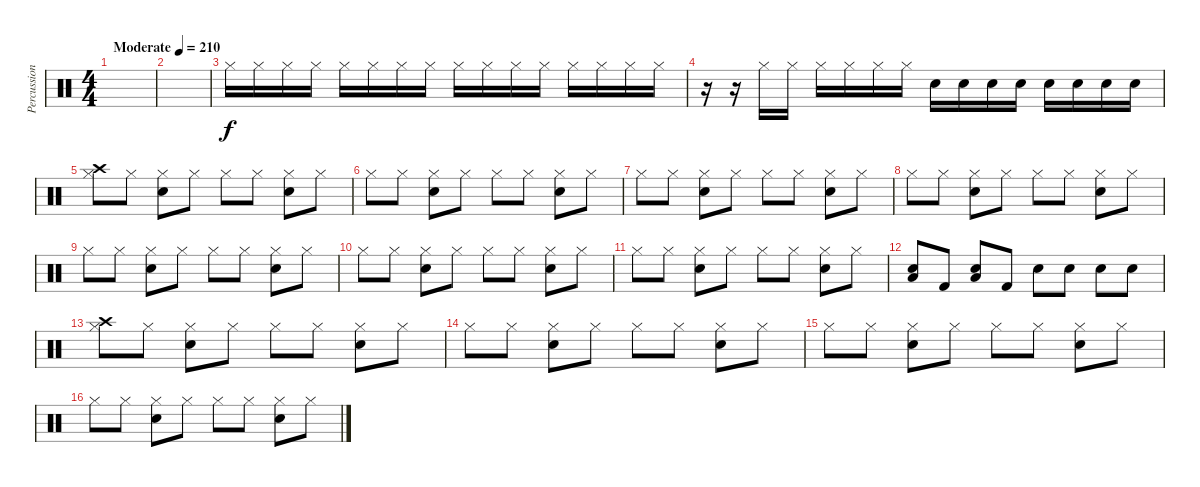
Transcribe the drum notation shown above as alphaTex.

\track ("Percussion" "Percussion") {instrument percussion}
\staff {score}
\articulation defaults
\ts (4 4)
\tempo (210 "Moderate")
\clef neutral
\ks c
|
|
"Hi-Hat (closed)".16 "Hi-Hat (closed)".16 "Hi-Hat (closed)".16 "Hi-Hat (closed)".16 "Hi-Hat (closed)".16 "Hi-Hat (closed)".16 "Hi-Hat (closed)".16 "Hi-Hat (closed)".16 "Hi-Hat (closed)".16 "Hi-Hat (closed)".16 "Hi-Hat (closed)".16 "Hi-Hat (closed)".16 "Hi-Hat (closed)".16 "Hi-Hat (closed)".16 "Hi-Hat (closed)".16 "Hi-Hat (closed)".16 |
r.16 r.16 "Hi-Hat (closed)".16 "Hi-Hat (closed)".16 "Hi-Hat (closed)".16 "Hi-Hat (closed)".16 "Hi-Hat (closed)".16 "Hi-Hat (closed)".16 "Snare (hit) 2".16 "Snare (hit) 2".16 "Snare (hit) 2".16 "Snare (hit) 2".16 "Snare (hit) 2".16 "Snare (hit) 2".16 "Snare (hit) 2".16 "Snare (hit) 2".16 |
("Crash high (hit)" "Hi-Hat (closed)").8 "Hi-Hat (closed)".8 ("Hi-Hat (closed)" "Snare (hit) 2").8 "Hi-Hat (closed)".8 "Hi-Hat (closed)".8 "Hi-Hat (closed)".8 ("Hi-Hat (closed)" "Snare (hit) 2").8 "Hi-Hat (closed)".8 |
"Hi-Hat (closed)".8 "Hi-Hat (closed)".8 ("Hi-Hat (closed)" "Snare (hit) 2").8 "Hi-Hat (closed)".8 "Hi-Hat (closed)".8 "Hi-Hat (closed)".8 ("Hi-Hat (closed)" "Snare (hit) 2").8 "Hi-Hat (closed)".8 |
"Hi-Hat (closed)".8 "Hi-Hat (closed)".8 ("Hi-Hat (closed)" "Snare (hit) 2").8 "Hi-Hat (closed)".8 "Hi-Hat (closed)".8 "Hi-Hat (closed)".8 ("Hi-Hat (closed)" "Snare (hit) 2").8 "Hi-Hat (closed)".8 |
"Hi-Hat (closed)".8 "Hi-Hat (closed)".8 ("Hi-Hat (closed)" "Snare (hit) 2").8 "Hi-Hat (closed)".8 "Hi-Hat (closed)".8 "Hi-Hat (closed)".8 ("Hi-Hat (closed)" "Snare (hit) 2").8 "Hi-Hat (closed)".8 |
"Hi-Hat (closed)".8 "Hi-Hat (closed)".8 ("Hi-Hat (closed)" "Snare (hit) 2").8 "Hi-Hat (closed)".8 "Hi-Hat (closed)".8 "Hi-Hat (closed)".8 ("Hi-Hat (closed)" "Snare (hit) 2").8 "Hi-Hat (closed)".8 |
"Hi-Hat (closed)".8 "Hi-Hat (closed)".8 ("Hi-Hat (closed)" "Snare (hit) 2").8 "Hi-Hat (closed)".8 "Hi-Hat (closed)".8 "Hi-Hat (closed)".8 ("Hi-Hat (closed)" "Snare (hit) 2").8 "Hi-Hat (closed)".8 |
"Hi-Hat (closed)".8 "Hi-Hat (closed)".8 ("Hi-Hat (closed)" "Snare (hit) 2").8 "Hi-Hat (closed)".8 "Hi-Hat (closed)".8 "Hi-Hat (closed)".8 ("Hi-Hat (closed)" "Snare (hit) 2").8 "Hi-Hat (closed)".8 |
("Low Floor Tom (hit)" "Snare (hit) 2").8 "Kick (hit) 2".8 ("Low Floor Tom (hit)" "Snare (hit) 2").8 "Kick (hit) 2".8 "Snare (hit) 2".8 "Snare (hit) 2".8 "Snare (hit) 2".8 "Snare (hit) 2".8 |
("Crash high (hit)" "Hi-Hat (closed)").8 "Hi-Hat (closed)".8 ("Hi-Hat (closed)" "Snare (hit) 2").8 "Hi-Hat (closed)".8 "Hi-Hat (closed)".8 "Hi-Hat (closed)".8 ("Hi-Hat (closed)" "Snare (hit) 2").8 "Hi-Hat (closed)".8 |
"Hi-Hat (closed)".8 "Hi-Hat (closed)".8 ("Hi-Hat (closed)" "Snare (hit) 2").8 "Hi-Hat (closed)".8 "Hi-Hat (closed)".8 "Hi-Hat (closed)".8 ("Hi-Hat (closed)" "Snare (hit) 2").8 "Hi-Hat (closed)".8 |
"Hi-Hat (closed)".8 "Hi-Hat (closed)".8 ("Hi-Hat (closed)" "Snare (hit) 2").8 "Hi-Hat (closed)".8 "Hi-Hat (closed)".8 "Hi-Hat (closed)".8 ("Hi-Hat (closed)" "Snare (hit) 2").8 "Hi-Hat (closed)".8 |
"Hi-Hat (closed)".8 "Hi-Hat (closed)".8 ("Hi-Hat (closed)" "Snare (hit) 2").8 "Hi-Hat (closed)".8 "Hi-Hat (closed)".8 "Hi-Hat (closed)".8 ("Hi-Hat (closed)" "Snare (hit) 2").8 "Hi-Hat (closed)".8
